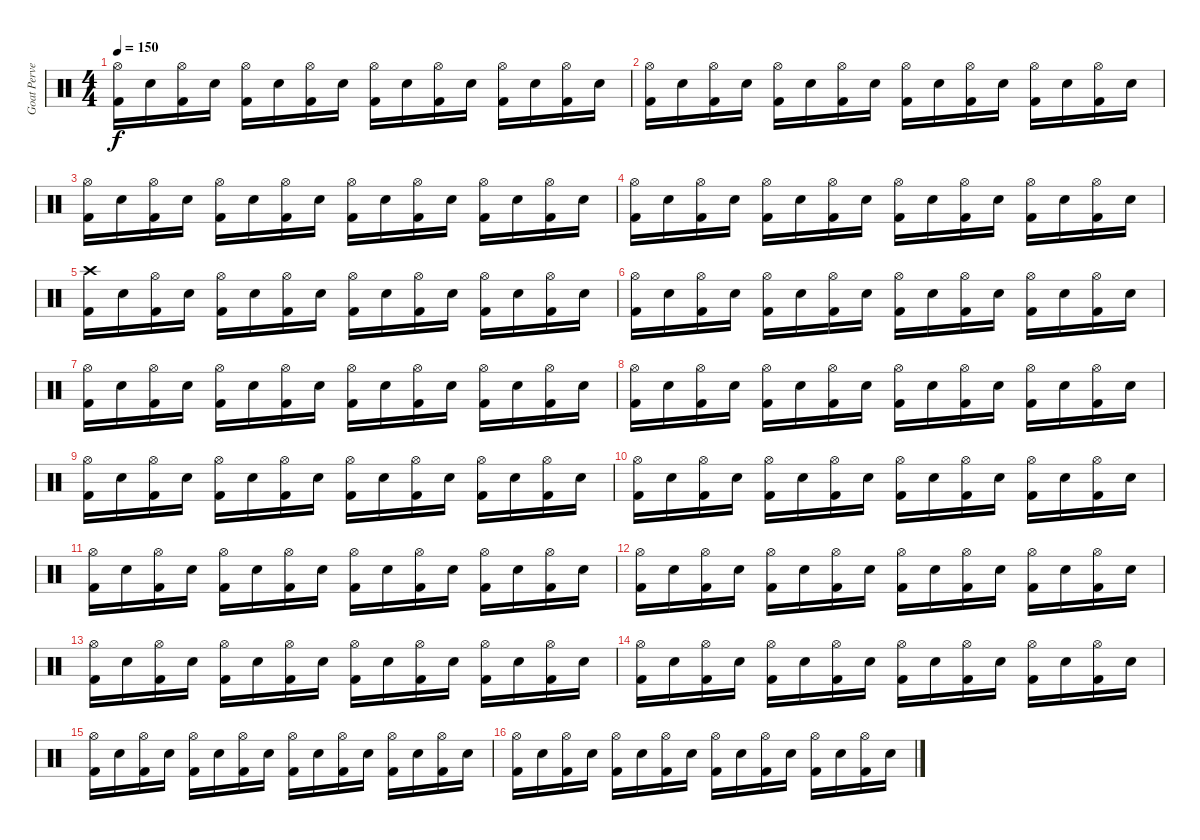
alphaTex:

\track ("Goat Pervertor" "Goat Perve") {instrument percussion}
\staff {score}
\articulation defaults
\ts (4 4)
\tempo 150
\clef neutral
\ks c
("Kick (hit) 2" "Hi-Hat (open)").16{dy f} "Snare (hit) 2".16 ("Kick (hit) 2" "Hi-Hat (open)").16 "Snare (hit) 2".16 ("Kick (hit) 2" "Hi-Hat (open)").16 "Snare (hit) 2".16 ("Kick (hit) 2" "Hi-Hat (open)").16 "Snare (hit) 2".16 ("Kick (hit) 2" "Hi-Hat (open)").16 "Snare (hit) 2".16 ("Kick (hit) 2" "Hi-Hat (open)").16 "Snare (hit) 2".16 ("Kick (hit) 2" "Hi-Hat (open)").16 "Snare (hit) 2".16 ("Kick (hit) 2" "Hi-Hat (open)").16 "Snare (hit) 2".16 |
("Kick (hit) 2" "Hi-Hat (open)").16 "Snare (hit) 2".16 ("Kick (hit) 2" "Hi-Hat (open)").16 "Snare (hit) 2".16 ("Kick (hit) 2" "Hi-Hat (open)").16 "Snare (hit) 2".16 ("Kick (hit) 2" "Hi-Hat (open)").16 "Snare (hit) 2".16 ("Kick (hit) 2" "Hi-Hat (open)").16 "Snare (hit) 2".16 ("Kick (hit) 2" "Hi-Hat (open)").16 "Snare (hit) 2".16 ("Kick (hit) 2" "Hi-Hat (open)").16 "Snare (hit) 2".16 ("Kick (hit) 2" "Hi-Hat (open)").16 "Snare (hit) 2".16 |
("Kick (hit) 2" "Hi-Hat (open)").16 "Snare (hit) 2".16 ("Kick (hit) 2" "Hi-Hat (open)").16 "Snare (hit) 2".16 ("Kick (hit) 2" "Hi-Hat (open)").16 "Snare (hit) 2".16 ("Kick (hit) 2" "Hi-Hat (open)").16 "Snare (hit) 2".16 ("Kick (hit) 2" "Hi-Hat (open)").16 "Snare (hit) 2".16 ("Kick (hit) 2" "Hi-Hat (open)").16 "Snare (hit) 2".16 ("Kick (hit) 2" "Hi-Hat (open)").16 "Snare (hit) 2".16 ("Kick (hit) 2" "Hi-Hat (open)").16 "Snare (hit) 2".16 |
("Kick (hit) 2" "Hi-Hat (open)").16 "Snare (hit) 2".16 ("Kick (hit) 2" "Hi-Hat (open)").16 "Snare (hit) 2".16 ("Kick (hit) 2" "Hi-Hat (open)").16 "Snare (hit) 2".16 ("Kick (hit) 2" "Hi-Hat (open)").16 "Snare (hit) 2".16 ("Kick (hit) 2" "Hi-Hat (open)").16 "Snare (hit) 2".16 ("Kick (hit) 2" "Hi-Hat (open)").16 "Snare (hit) 2".16 ("Kick (hit) 2" "Hi-Hat (open)").16 "Snare (hit) 2".16 ("Kick (hit) 2" "Hi-Hat (open)").16 "Snare (hit) 2".16 |
("Kick (hit) 2" "Crash high (hit)").16 "Snare (hit) 2".16 ("Kick (hit) 2" "Hi-Hat (open)").16 "Snare (hit) 2".16 ("Kick (hit) 2" "Hi-Hat (open)").16 "Snare (hit) 2".16 ("Kick (hit) 2" "Hi-Hat (open)").16 "Snare (hit) 2".16 ("Kick (hit) 2" "Hi-Hat (open)").16 "Snare (hit) 2".16 ("Kick (hit) 2" "Hi-Hat (open)").16 "Snare (hit) 2".16 ("Kick (hit) 2" "Hi-Hat (open)").16 "Snare (hit) 2".16 ("Kick (hit) 2" "Hi-Hat (open)").16 "Snare (hit) 2".16 |
("Kick (hit) 2" "Hi-Hat (open)").16 "Snare (hit) 2".16 ("Kick (hit) 2" "Hi-Hat (open)").16 "Snare (hit) 2".16 ("Kick (hit) 2" "Hi-Hat (open)").16 "Snare (hit) 2".16 ("Kick (hit) 2" "Hi-Hat (open)").16 "Snare (hit) 2".16 ("Kick (hit) 2" "Hi-Hat (open)").16 "Snare (hit) 2".16 ("Kick (hit) 2" "Hi-Hat (open)").16 "Snare (hit) 2".16 ("Kick (hit) 2" "Hi-Hat (open)").16 "Snare (hit) 2".16 ("Kick (hit) 2" "Hi-Hat (open)").16 "Snare (hit) 2".16 |
("Kick (hit) 2" "Hi-Hat (open)").16 "Snare (hit) 2".16 ("Kick (hit) 2" "Hi-Hat (open)").16 "Snare (hit) 2".16 ("Kick (hit) 2" "Hi-Hat (open)").16 "Snare (hit) 2".16 ("Kick (hit) 2" "Hi-Hat (open)").16 "Snare (hit) 2".16 ("Kick (hit) 2" "Hi-Hat (open)").16 "Snare (hit) 2".16 ("Kick (hit) 2" "Hi-Hat (open)").16 "Snare (hit) 2".16 ("Kick (hit) 2" "Hi-Hat (open)").16 "Snare (hit) 2".16 ("Kick (hit) 2" "Hi-Hat (open)").16 "Snare (hit) 2".16 |
("Kick (hit) 2" "Hi-Hat (open)").16 "Snare (hit) 2".16 ("Kick (hit) 2" "Hi-Hat (open)").16 "Snare (hit) 2".16 ("Kick (hit) 2" "Hi-Hat (open)").16 "Snare (hit) 2".16 ("Kick (hit) 2" "Hi-Hat (open)").16 "Snare (hit) 2".16 ("Kick (hit) 2" "Hi-Hat (open)").16 "Snare (hit) 2".16 ("Kick (hit) 2" "Hi-Hat (open)").16 "Snare (hit) 2".16 ("Kick (hit) 2" "Hi-Hat (open)").16 "Snare (hit) 2".16 ("Kick (hit) 2" "Hi-Hat (open)").16 "Snare (hit) 2".16 |
("Kick (hit) 2" "Hi-Hat (open)").16 "Snare (hit) 2".16 ("Kick (hit) 2" "Hi-Hat (open)").16 "Snare (hit) 2".16 ("Kick (hit) 2" "Hi-Hat (open)").16 "Snare (hit) 2".16 ("Kick (hit) 2" "Hi-Hat (open)").16 "Snare (hit) 2".16 ("Kick (hit) 2" "Hi-Hat (open)").16 "Snare (hit) 2".16 ("Kick (hit) 2" "Hi-Hat (open)").16 "Snare (hit) 2".16 ("Kick (hit) 2" "Hi-Hat (open)").16 "Snare (hit) 2".16 ("Kick (hit) 2" "Hi-Hat (open)").16 "Snare (hit) 2".16 |
("Kick (hit) 2" "Hi-Hat (open)").16 "Snare (hit) 2".16 ("Kick (hit) 2" "Hi-Hat (open)").16 "Snare (hit) 2".16 ("Kick (hit) 2" "Hi-Hat (open)").16 "Snare (hit) 2".16 ("Kick (hit) 2" "Hi-Hat (open)").16 "Snare (hit) 2".16 ("Kick (hit) 2" "Hi-Hat (open)").16 "Snare (hit) 2".16 ("Kick (hit) 2" "Hi-Hat (open)").16 "Snare (hit) 2".16 ("Kick (hit) 2" "Hi-Hat (open)").16 "Snare (hit) 2".16 ("Kick (hit) 2" "Hi-Hat (open)").16 "Snare (hit) 2".16 |
("Kick (hit) 2" "Hi-Hat (open)").16 "Snare (hit) 2".16 ("Kick (hit) 2" "Hi-Hat (open)").16 "Snare (hit) 2".16 ("Kick (hit) 2" "Hi-Hat (open)").16 "Snare (hit) 2".16 ("Kick (hit) 2" "Hi-Hat (open)").16 "Snare (hit) 2".16 ("Kick (hit) 2" "Hi-Hat (open)").16 "Snare (hit) 2".16 ("Kick (hit) 2" "Hi-Hat (open)").16 "Snare (hit) 2".16 ("Kick (hit) 2" "Hi-Hat (open)").16 "Snare (hit) 2".16 ("Kick (hit) 2" "Hi-Hat (open)").16 "Snare (hit) 2".16 |
("Kick (hit) 2" "Hi-Hat (open)").16 "Snare (hit) 2".16 ("Kick (hit) 2" "Hi-Hat (open)").16 "Snare (hit) 2".16 ("Kick (hit) 2" "Hi-Hat (open)").16 "Snare (hit) 2".16 ("Kick (hit) 2" "Hi-Hat (open)").16 "Snare (hit) 2".16 ("Kick (hit) 2" "Hi-Hat (open)").16 "Snare (hit) 2".16 ("Kick (hit) 2" "Hi-Hat (open)").16 "Snare (hit) 2".16 ("Kick (hit) 2" "Hi-Hat (open)").16 "Snare (hit) 2".16 ("Kick (hit) 2" "Hi-Hat (open)").16 "Snare (hit) 2".16 |
("Kick (hit) 2" "Hi-Hat (open)").16 "Snare (hit) 2".16 ("Kick (hit) 2" "Hi-Hat (open)").16 "Snare (hit) 2".16 ("Kick (hit) 2" "Hi-Hat (open)").16 "Snare (hit) 2".16 ("Kick (hit) 2" "Hi-Hat (open)").16 "Snare (hit) 2".16 ("Kick (hit) 2" "Hi-Hat (open)").16 "Snare (hit) 2".16 ("Kick (hit) 2" "Hi-Hat (open)").16 "Snare (hit) 2".16 ("Kick (hit) 2" "Hi-Hat (open)").16 "Snare (hit) 2".16 ("Kick (hit) 2" "Hi-Hat (open)").16 "Snare (hit) 2".16 |
("Kick (hit) 2" "Hi-Hat (open)").16 "Snare (hit) 2".16 ("Kick (hit) 2" "Hi-Hat (open)").16 "Snare (hit) 2".16 ("Kick (hit) 2" "Hi-Hat (open)").16 "Snare (hit) 2".16 ("Kick (hit) 2" "Hi-Hat (open)").16 "Snare (hit) 2".16 ("Kick (hit) 2" "Hi-Hat (open)").16 "Snare (hit) 2".16 ("Kick (hit) 2" "Hi-Hat (open)").16 "Snare (hit) 2".16 ("Kick (hit) 2" "Hi-Hat (open)").16 "Snare (hit) 2".16 ("Kick (hit) 2" "Hi-Hat (open)").16 "Snare (hit) 2".16 |
("Kick (hit) 2" "Hi-Hat (open)").16 "Snare (hit) 2".16 ("Kick (hit) 2" "Hi-Hat (open)").16 "Snare (hit) 2".16 ("Kick (hit) 2" "Hi-Hat (open)").16 "Snare (hit) 2".16 ("Kick (hit) 2" "Hi-Hat (open)").16 "Snare (hit) 2".16 ("Kick (hit) 2" "Hi-Hat (open)").16 "Snare (hit) 2".16 ("Kick (hit) 2" "Hi-Hat (open)").16 "Snare (hit) 2".16 ("Kick (hit) 2" "Hi-Hat (open)").16 "Snare (hit) 2".16 ("Kick (hit) 2" "Hi-Hat (open)").16 "Snare (hit) 2".16 |
("Kick (hit) 2" "Hi-Hat (open)").16 "Snare (hit) 2".16 ("Kick (hit) 2" "Hi-Hat (open)").16 "Snare (hit) 2".16 ("Kick (hit) 2" "Hi-Hat (open)").16 "Snare (hit) 2".16 ("Kick (hit) 2" "Hi-Hat (open)").16 "Snare (hit) 2".16 ("Kick (hit) 2" "Hi-Hat (open)").16 "Snare (hit) 2".16 ("Kick (hit) 2" "Hi-Hat (open)").16 "Snare (hit) 2".16 ("Kick (hit) 2" "Hi-Hat (open)").16 "Snare (hit) 2".16 ("Kick (hit) 2" "Hi-Hat (open)").16 "Snare (hit) 2".16
